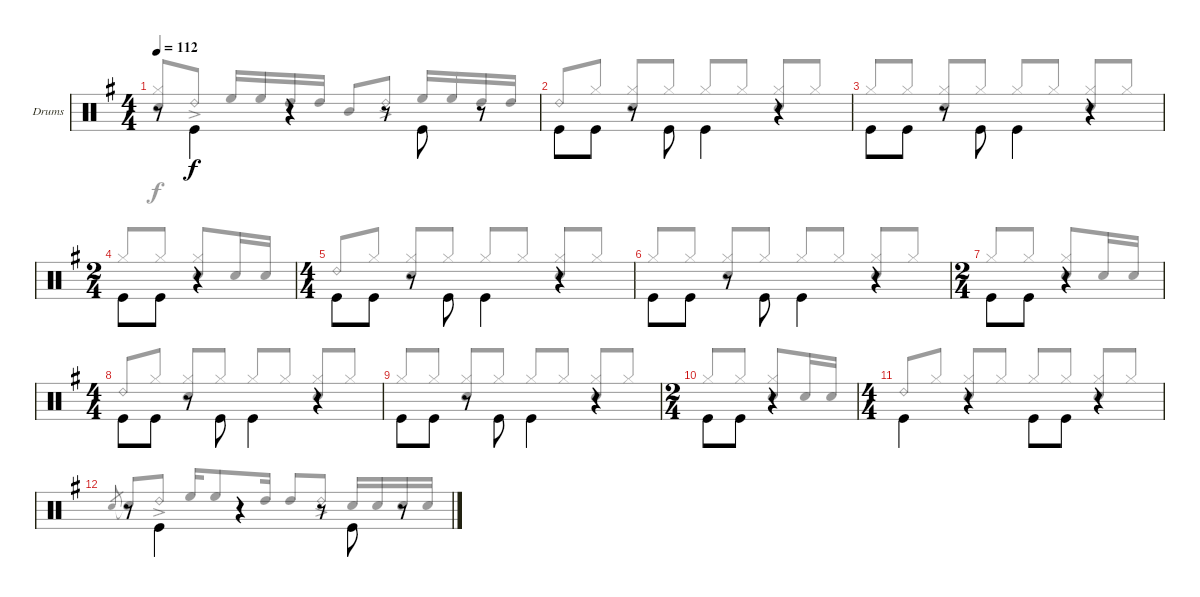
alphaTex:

\defaultSystemsLayout 4
\bracketExtendMode groupsimilarinstruments
\firstSystemTrackNameOrientation horizontal
\otherSystemsTrackNameOrientation horizontal
\track ("Drumkit" "Drums") {instrument percussion}
\staff {score}
\articulation defaults
\voice
\ts (4 4)
\tempo 112
\clef neutral
\scale
1.04288
\ks g
r.8{dy f beam invert} "Kick (hit)".4{beam invert} r.4 r.8{beam invert} "Kick (hit)".8{beam invert} r.8 |
\scale
0.957125 "Kick (hit)".8{beam invert} "Kick (hit)".8 r.8 "Kick (hit)".8{beam invert} "Kick (hit)".4{beam invert} r.4 |
\scale
1.04288 "Kick (hit)".8{beam invert} "Kick (hit)".8 r.8 "Kick (hit)".8{beam invert} "Kick (hit)".4{beam invert} r.4 |
\ts (2 4)
\scale
0.957125 "Kick (hit)".8{beam invert} "Kick (hit)".8 r.4 |
\ts (4 4)
\scale
1.04288 "Kick (hit)".8{beam invert} "Kick (hit)".8 r.8 "Kick (hit)".8{beam invert} "Kick (hit)".4{beam invert} r.4 |
\scale
0.957125 "Kick (hit)".8{beam invert} "Kick (hit)".8 r.8 "Kick (hit)".8{beam invert} "Kick (hit)".4{beam invert} r.4 |
\ts (2 4)
\scale
1.04288 "Kick (hit)".8{beam invert} "Kick (hit)".8 r.4 |
\ts (4 4)
\scale
0.957125 "Kick (hit)".8{beam invert} "Kick (hit)".8 r.8 "Kick (hit)".8{beam invert} "Kick (hit)".4{beam invert} r.4 |
\scale
1.04288 "Kick (hit)".8{beam invert} "Kick (hit)".8 r.8 "Kick (hit)".8{beam invert} "Kick (hit)".4{beam invert} r.4 |
\ts (2 4)
\scale
0.957125 "Kick (hit)".8{beam invert} "Kick (hit)".8 r.4 |
\ts (4 4)
\scale
1.04288 "Kick (hit)".4{beam invert} r.4 "Kick (hit)".8{beam invert} "Kick (hit)".8 r.4 |
\scale
0.957125 r.8{beam invert} "Kick (hit)".4{beam invert} r.4 r.8{beam invert} "Kick (hit)".8{beam invert} r.8
\voice
\clef neutral
\ottava regular
\simile none
\scale
1.04288
\ks g
("Hi-Hat (closed)" "Snare (hit) 2").8{dy f beam invert} "Ride (bell) 2"{ac}.8 "High Floor Tom (hit)".16{beam invert} "High Floor Tom (hit)".16 "High Tom (hit)".16 "High Tom (hit)".16 "Mid Tom (hit)".8{beam invert} "Ride (bell) 2"{ac}.8 "High Floor Tom (hit)".16{beam invert} "High Floor Tom (hit)".16 "High Tom (hit)".16 "High Tom (hit)".16 |
\scale
0.957125 "Ride (bell) 2".8{beam invert} "Hi-Hat (closed)".8 ("Hi-Hat (closed)" "Snare (hit) 2").8{beam invert} "Hi-Hat (closed)".8 "Hi-Hat (closed)".8{beam invert} "Hi-Hat (closed)".8 ("Hi-Hat (closed)" "Snare (hit) 2").8{beam invert} "Hi-Hat (closed)".8 |
\scale
1.04288 "Hi-Hat (closed)".8{beam invert} "Hi-Hat (closed)".8 ("Hi-Hat (closed)" "Snare (hit) 2").8{beam invert} "Hi-Hat (closed)".8 "Hi-Hat (closed)".8{beam invert} "Hi-Hat (closed)".8 ("Hi-Hat (closed)" "Snare (hit) 2").8{beam invert} "Hi-Hat (closed)".8 |
\scale
0.957125 "Hi-Hat (closed)".8{beam invert} "Hi-Hat (closed)".8 ("Hi-Hat (closed)" "Snare (hit) 2").8{beam invert} "Snare (hit) 2".16 "Snare (hit) 2".16 |
\scale
1.04288 "Ride (bell) 2".8{beam invert} "Hi-Hat (closed)".8 ("Hi-Hat (closed)" "Snare (hit) 2").8{beam invert} "Hi-Hat (closed)".8 "Hi-Hat (closed)".8{beam invert} "Hi-Hat (closed)".8 ("Hi-Hat (closed)" "Snare (hit) 2").8{beam invert} "Hi-Hat (closed)".8 |
\scale
0.957125 "Hi-Hat (closed)".8{beam invert} "Hi-Hat (closed)".8 ("Hi-Hat (closed)" "Snare (hit) 2").8{beam invert} "Hi-Hat (closed)".8 "Hi-Hat (closed)".8{beam invert} "Hi-Hat (closed)".8 ("Hi-Hat (closed)" "Snare (hit) 2").8{beam invert} "Hi-Hat (closed)".8 |
\scale
1.04288 "Hi-Hat (closed)".8{beam invert} "Hi-Hat (closed)".8 ("Hi-Hat (closed)" "Snare (hit) 2").8{beam invert} "Snare (hit) 2".16 "Snare (hit) 2".16 |
\scale
0.957125 "Ride (bell) 2".8{beam invert} "Hi-Hat (closed)".8 ("Hi-Hat (closed)" "Snare (hit) 2").8{beam invert} "Hi-Hat (closed)".8 "Hi-Hat (closed)".8{beam invert} "Hi-Hat (closed)".8 ("Hi-Hat (closed)" "Snare (hit) 2").8{beam invert} "Hi-Hat (closed)".8 |
\scale
1.04288 "Hi-Hat (closed)".8{beam invert} "Hi-Hat (closed)".8 ("Hi-Hat (closed)" "Snare (hit) 2").8{beam invert} "Hi-Hat (closed)".8 "Hi-Hat (closed)".8{beam invert} "Hi-Hat (closed)".8 ("Hi-Hat (closed)" "Snare (hit) 2").8{beam invert} "Hi-Hat (closed)".8 |
\scale
0.957125 "Hi-Hat (closed)".8{beam invert} "Hi-Hat (closed)".8 ("Hi-Hat (closed)" "Snare (hit) 2").8{beam invert} "Snare (hit) 2".16 "Snare (hit) 2".16 |
\scale
1.04288 "Ride (bell) 2".8{beam invert} "Hi-Hat (closed)".8 ("Hi-Hat (closed)" "Snare (hit) 2").8{beam invert} "Hi-Hat (closed)".8 "Hi-Hat (closed)".8{beam invert} "Hi-Hat (closed)".8 ("Hi-Hat (closed)" "Snare (hit) 2").8{beam invert} "Hi-Hat (closed)".8 |
\scale
0.957125 "Snare (hit) 2".8{gr beam invert} "Snare (hit) 2"{t}.8{beam invert} "Ride (bell) 2"{ac}.8 "High Floor Tom (hit)".16{beam invert} "High Floor Tom (hit)".8 "High Tom (hit)".16 "High Tom (hit)".8{beam invert} "Ride (bell) 2"{ac}.8 "Snare (hit) 2".16{beam invert} "Snare (hit) 2".16 "Snare (hit) 2".16 "Snare (hit) 2".16
